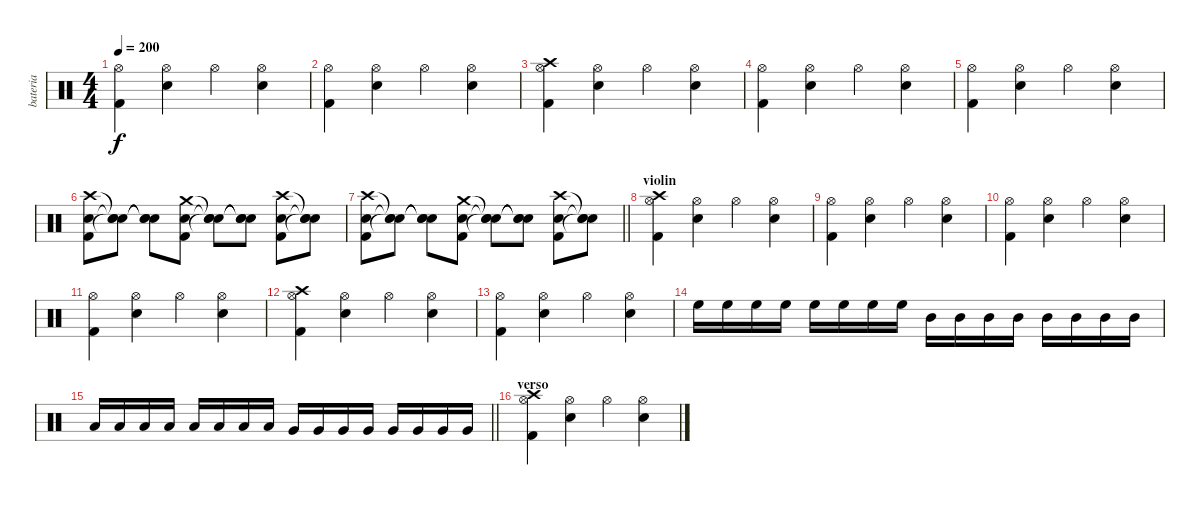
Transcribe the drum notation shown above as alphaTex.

\track ("bateria" "bateria") {instrument percussion}
\staff {score}
\articulation defaults
\ts (4 4)
\tempo 200
\clef neutral
\ks c
("Hi-Hat (open)" "Kick (hit) 2").4{dy f} ("Hi-Hat (open)" "Electric Snare (hit)").4 "Hi-Hat (open)".4 ("Hi-Hat (open)" "Electric Snare (hit)").4 |
("Hi-Hat (open)" "Kick (hit) 2").4 ("Hi-Hat (open)" "Electric Snare (hit)").4 "Hi-Hat (open)".4 ("Hi-Hat (open)" "Electric Snare (hit)").4 |
("Hi-Hat (open)" "Kick (hit) 2" "Crash high (hit)").4 ("Hi-Hat (open)" "Electric Snare (hit)").4 "Hi-Hat (open)".4 ("Hi-Hat (open)" "Electric Snare (hit)").4 |
("Hi-Hat (open)" "Kick (hit) 2").4 ("Hi-Hat (open)" "Electric Snare (hit)").4 "Hi-Hat (open)".4 ("Hi-Hat (open)" "Electric Snare (hit)").4 |
("Hi-Hat (open)" "Kick (hit) 2").4 ("Hi-Hat (open)" "Electric Snare (hit)").4 "Hi-Hat (open)".4 ("Hi-Hat (open)" "Electric Snare (hit)").4 |
("Electric Snare (hit)" "Kick (hit) 2" "Crash high (hit)").8 ("Snare (hit)"{t} "Snare (hit)"{t} "Snare (hit)"{t}).8 ("Snare (hit)"{t} "Snare (hit)"{t} "Snare (hit)"{t}).8 ("Electric Snare (hit)" "Kick (hit) 2" "Crash medium (hit)").8 ("Snare (hit)"{t} "Snare (hit)"{t} "Snare (hit)"{t}).8 ("Snare (hit)"{t} "Snare (hit)"{t} "Snare (hit)"{t}).8 ("Electric Snare (hit)" "Kick (hit) 2" "Crash high (hit)").8 ("Snare (hit)"{t} "Snare (hit)"{t} "Snare (hit)"{t}).8 |
\barLineRight lightlight
("Electric Snare (hit)" "Kick (hit) 2" "Crash high (hit)").8 ("Snare (hit)"{t} "Snare (hit)"{t} "Snare (hit)"{t}).8 ("Snare (hit)"{t} "Snare (hit)"{t} "Snare (hit)"{t}).8 ("Electric Snare (hit)" "Kick (hit) 2" "Crash medium (hit)").8 ("Snare (hit)"{t} "Snare (hit)"{t} "Snare (hit)"{t}).8 ("Snare (hit)"{t} "Snare (hit)"{t} "Snare (hit)"{t}).8 ("Electric Snare (hit)" "Kick (hit) 2" "Crash high (hit)").8 ("Snare (hit)"{t} "Snare (hit)"{t} "Snare (hit)"{t}).8 |
\section ("" "violin")
("Hi-Hat (open)" "Kick (hit) 2" "Crash high (hit)").4 ("Hi-Hat (open)" "Electric Snare (hit)").4 "Hi-Hat (open)".4 ("Hi-Hat (open)" "Electric Snare (hit)").4 |
("Hi-Hat (open)" "Kick (hit) 2").4 ("Hi-Hat (open)" "Electric Snare (hit)").4 "Hi-Hat (open)".4 ("Hi-Hat (open)" "Electric Snare (hit)").4 |
("Hi-Hat (open)" "Kick (hit) 2").4 ("Hi-Hat (open)" "Electric Snare (hit)").4 "Hi-Hat (open)".4 ("Hi-Hat (open)" "Electric Snare (hit)").4 |
("Hi-Hat (open)" "Kick (hit) 2").4 ("Hi-Hat (open)" "Electric Snare (hit)").4 "Hi-Hat (open)".4 ("Hi-Hat (open)" "Electric Snare (hit)").4 |
("Hi-Hat (open)" "Kick (hit) 2" "Crash high (hit)").4 ("Hi-Hat (open)" "Electric Snare (hit)").4 "Hi-Hat (open)".4 ("Hi-Hat (open)" "Electric Snare (hit)").4 |
("Hi-Hat (open)" "Kick (hit) 2").4 ("Hi-Hat (open)" "Electric Snare (hit)").4 "Hi-Hat (open)".4 ("Hi-Hat (open)" "Electric Snare (hit)").4 |
"High Floor Tom (hit)".16 "High Floor Tom (hit)".16 "High Floor Tom (hit)".16 "High Floor Tom (hit)".16 "High Floor Tom (hit)".16 "High Floor Tom (hit)".16 "High Floor Tom (hit)".16 "High Floor Tom (hit)".16 "Mid Tom (hit)".16 "Mid Tom (hit)".16 "Mid Tom (hit)".16 "Mid Tom (hit)".16 "Mid Tom (hit)".16 "Mid Tom (hit)".16 "Mid Tom (hit)".16 "Mid Tom (hit)".16 |
\barLineRight lightlight "Low Tom (hit)".16 "Low Tom (hit)".16 "Low Tom (hit)".16 "Low Tom (hit)".16 "Low Tom (hit)".16 "Low Tom (hit)".16 "Low Tom (hit)".16 "Low Tom (hit)".16 "Very Low Tom (hit)".16 "Very Low Tom (hit)".16 "Very Low Tom (hit)".16 "Very Low Tom (hit)".16 "Very Low Tom (hit)".16 "Very Low Tom (hit)".16 "Very Low Tom (hit)".16 "Very Low Tom (hit)".16
|
\section ("" "verso")
("Hi-Hat (open)" "Kick (hit) 2" "Crash high (hit)").4 ("Hi-Hat (open)" "Electric Snare (hit)").4 "Hi-Hat (open)".4 ("Hi-Hat (open)" "Electric Snare (hit)").4
